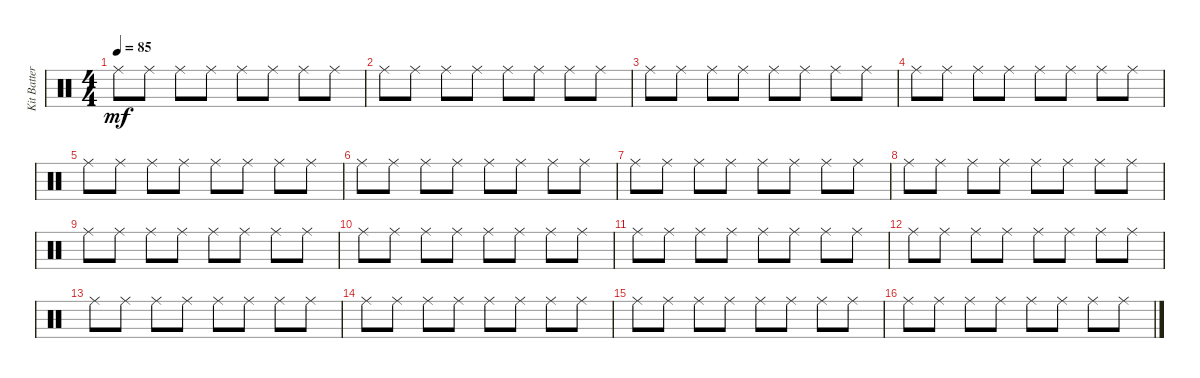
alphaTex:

\track ("Kit Batterie 2" "Kit Batter") {instrument percussion}
\staff {score}
\articulation defaults
\ts (4 4)
\tempo 85
\clef neutral
\ks c "Ride (middle)".8{dy mf balance 0} "Ride (middle)".8 "Ride (middle)".8 "Ride (middle)".8 "Ride (middle)".8 "Ride (middle)".8 "Ride (middle)".8 "Ride (middle)".8
|
"Ride (middle)".8{balance 0} "Ride (middle)".8 "Ride (middle)".8 "Ride (middle)".8 "Ride (middle)".8 "Ride (middle)".8 "Ride (middle)".8 "Ride (middle)".8 |
"Ride (middle)".8{balance 0} "Ride (middle)".8 "Ride (middle)".8 "Ride (middle)".8 "Ride (middle)".8 "Ride (middle)".8 "Ride (middle)".8 "Ride (middle)".8 |
"Ride (middle)".8{balance 0} "Ride (middle)".8 "Ride (middle)".8 "Ride (middle)".8 "Ride (middle)".8 "Ride (middle)".8 "Ride (middle)".8 "Ride (middle)".8 |
"Ride (middle)".8{balance 0} "Ride (middle)".8 "Ride (middle)".8 "Ride (middle)".8 "Ride (middle)".8 "Ride (middle)".8 "Ride (middle)".8 "Ride (middle)".8 |
"Ride (middle)".8{balance 0} "Ride (middle)".8 "Ride (middle)".8 "Ride (middle)".8 "Ride (middle)".8 "Ride (middle)".8 "Ride (middle)".8 "Ride (middle)".8 |
"Ride (middle)".8{balance 0} "Ride (middle)".8 "Ride (middle)".8 "Ride (middle)".8 "Ride (middle)".8 "Ride (middle)".8 "Ride (middle)".8 "Ride (middle)".8 |
"Ride (middle)".8{balance 0} "Ride (middle)".8 "Ride (middle)".8 "Ride (middle)".8 "Ride (middle)".8 "Ride (middle)".8 "Ride (middle)".8 "Ride (middle)".8 |
"Ride (middle)".8{balance 0} "Ride (middle)".8 "Ride (middle)".8 "Ride (middle)".8 "Ride (middle)".8 "Ride (middle)".8 "Ride (middle)".8 "Ride (middle)".8 |
"Ride (middle)".8{balance 0} "Ride (middle)".8 "Ride (middle)".8 "Ride (middle)".8 "Ride (middle)".8 "Ride (middle)".8 "Ride (middle)".8 "Ride (middle)".8 |
"Ride (middle)".8{balance 0} "Ride (middle)".8 "Ride (middle)".8 "Ride (middle)".8 "Ride (middle)".8 "Ride (middle)".8 "Ride (middle)".8 "Ride (middle)".8 |
"Ride (middle)".8{balance 0} "Ride (middle)".8 "Ride (middle)".8 "Ride (middle)".8 "Ride (middle)".8 "Ride (middle)".8 "Ride (middle)".8 "Ride (middle)".8 |
"Ride (middle)".8{balance 0} "Ride (middle)".8 "Ride (middle)".8 "Ride (middle)".8 "Ride (middle)".8 "Ride (middle)".8 "Ride (middle)".8 "Ride (middle)".8 |
"Ride (middle)".8{balance 0} "Ride (middle)".8 "Ride (middle)".8 "Ride (middle)".8 "Ride (middle)".8 "Ride (middle)".8 "Ride (middle)".8 "Ride (middle)".8 |
"Ride (middle)".8{balance 0} "Ride (middle)".8 "Ride (middle)".8 "Ride (middle)".8 "Ride (middle)".8 "Ride (middle)".8 "Ride (middle)".8 "Ride (middle)".8 |
"Ride (middle)".8{balance 0} "Ride (middle)".8 "Ride (middle)".8 "Ride (middle)".8 "Ride (middle)".8 "Ride (middle)".8 "Ride (middle)".8 "Ride (middle)".8
